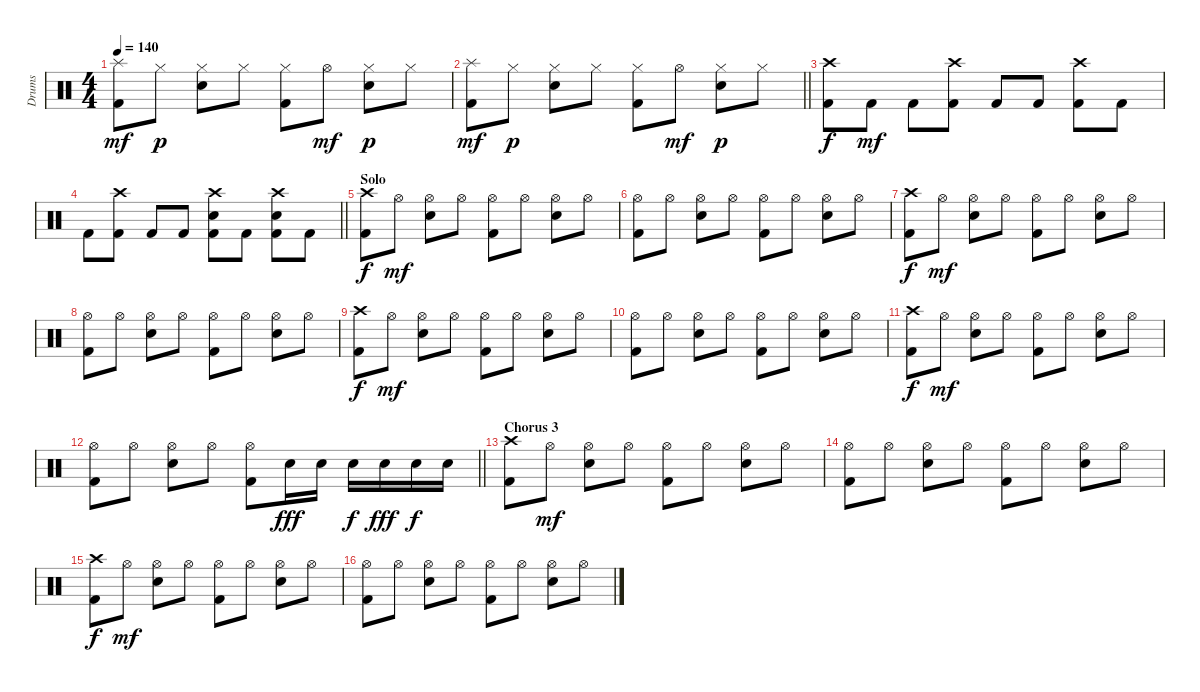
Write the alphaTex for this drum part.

\track ("Drums" "Drums") {instrument percussion}
\staff {score}
\articulation defaults
\ts (4 4)
\tempo 140
\clef neutral
\ks c
("Splash (hit)" "Kick (hit) 2").8{dy mf} "Hi-Hat (closed)".8{dy p} ("Hi-Hat (closed)" "Snare (hit) 2").8 "Hi-Hat (closed)".8 ("Hi-Hat (closed)" "Kick (hit) 2").8 "Hi-Hat (open)".8{dy mf} ("Hi-Hat (closed)" "Snare (hit) 2").8{dy p} "Hi-Hat (closed)".8 |
\barLineRight lightlight
("Splash (hit)" "Kick (hit) 2").8{dy mf} "Hi-Hat (closed)".8{dy p} ("Hi-Hat (closed)" "Snare (hit) 2").8 "Hi-Hat (closed)".8 ("Hi-Hat (closed)" "Kick (hit) 2").8 "Hi-Hat (open)".8{dy mf} ("Hi-Hat (closed)" "Snare (hit) 2").8{dy p} "Hi-Hat (closed)".8 |
("Crash high (hit)" "Kick (hit) 2").8{dy f} "Kick (hit) 2".8{dy mf} "Kick (hit) 2".8 ("Crash high (hit)" "Kick (hit) 2").8 "Kick (hit) 2".8 "Kick (hit) 2".8 ("Crash high (hit)" "Kick (hit) 2").8 "Kick (hit) 2".8 |
\barLineRight lightlight "Kick (hit) 2".8
("Crash high (hit)" "Kick (hit) 2").8 "Kick (hit) 2".8 "Kick (hit) 2".8 ("Crash high (hit)" "Snare (hit) 2" "Kick (hit) 2").8 "Kick (hit) 2".8 ("Crash high (hit)" "Snare (hit) 2" "Kick (hit) 2").8 "Kick (hit) 2".8 |
\section ("" "Solo")
("Crash high (hit)" "Kick (hit) 2").8{dy f} "Hi-Hat (open)".8{dy mf} ("Hi-Hat (open)" "Snare (hit) 2").8 "Hi-Hat (open)".8 ("Hi-Hat (open)" "Kick (hit) 2").8 "Hi-Hat (open)".8 ("Hi-Hat (open)" "Snare (hit) 2").8 "Hi-Hat (open)".8 |
("Hi-Hat (open)" "Kick (hit) 2").8 "Hi-Hat (open)".8 ("Hi-Hat (open)" "Snare (hit) 2").8 "Hi-Hat (open)".8 ("Hi-Hat (open)" "Kick (hit) 2").8 "Hi-Hat (open)".8 ("Hi-Hat (open)" "Snare (hit) 2").8 "Hi-Hat (open)".8 |
("Crash high (hit)" "Kick (hit) 2").8{dy f} "Hi-Hat (open)".8{dy mf} ("Hi-Hat (open)" "Snare (hit) 2").8 "Hi-Hat (open)".8 ("Hi-Hat (open)" "Kick (hit) 2").8 "Hi-Hat (open)".8 ("Hi-Hat (open)" "Snare (hit) 2").8 "Hi-Hat (open)".8 |
("Hi-Hat (open)" "Kick (hit) 2").8 "Hi-Hat (open)".8 ("Hi-Hat (open)" "Snare (hit) 2").8 "Hi-Hat (open)".8 ("Hi-Hat (open)" "Kick (hit) 2").8 "Hi-Hat (open)".8 ("Hi-Hat (open)" "Snare (hit) 2").8 "Hi-Hat (open)".8 |
("Crash high (hit)" "Kick (hit) 2").8{dy f} "Hi-Hat (open)".8{dy mf} ("Hi-Hat (open)" "Snare (hit) 2").8 "Hi-Hat (open)".8 ("Hi-Hat (open)" "Kick (hit) 2").8 "Hi-Hat (open)".8 ("Hi-Hat (open)" "Snare (hit) 2").8 "Hi-Hat (open)".8 |
("Hi-Hat (open)" "Kick (hit) 2").8 "Hi-Hat (open)".8 ("Hi-Hat (open)" "Snare (hit) 2").8 "Hi-Hat (open)".8 ("Hi-Hat (open)" "Kick (hit) 2").8 "Hi-Hat (open)".8 ("Hi-Hat (open)" "Snare (hit) 2").8 "Hi-Hat (open)".8 |
("Crash high (hit)" "Kick (hit) 2").8{dy f} "Hi-Hat (open)".8{dy mf} ("Hi-Hat (open)" "Snare (hit) 2").8 "Hi-Hat (open)".8 ("Hi-Hat (open)" "Kick (hit) 2").8 "Hi-Hat (open)".8 ("Hi-Hat (open)" "Snare (hit) 2").8 "Hi-Hat (open)".8 |
\barLineRight lightlight
("Hi-Hat (open)" "Kick (hit) 2").8 "Hi-Hat (open)".8 ("Hi-Hat (open)" "Snare (hit) 2").8 "Hi-Hat (open)".8 ("Hi-Hat (open)" "Kick (hit) 2").8 "Snare (hit) 2".16{dy fff} "Snare (hit) 2".16 "Snare (hit) 2".16{dy f} "Snare (hit) 2".16{dy fff} "Snare (hit) 2".16{dy f} "Snare (hit) 2".16 |
\section ("" "Chorus 3")
("Crash high (hit)" "Kick (hit) 2").8 "Hi-Hat (open)".8{dy mf} ("Hi-Hat (open)" "Snare (hit) 2").8 "Hi-Hat (open)".8 ("Hi-Hat (open)" "Kick (hit) 2").8 "Hi-Hat (open)".8 ("Hi-Hat (open)" "Snare (hit) 2").8 "Hi-Hat (open)".8 |
("Hi-Hat (open)" "Kick (hit) 2").8 "Hi-Hat (open)".8 ("Hi-Hat (open)" "Snare (hit) 2").8 "Hi-Hat (open)".8 ("Hi-Hat (open)" "Kick (hit) 2").8 "Hi-Hat (open)".8 ("Hi-Hat (open)" "Snare (hit) 2").8 "Hi-Hat (open)".8 |
("Crash high (hit)" "Kick (hit) 2").8{dy f} "Hi-Hat (open)".8{dy mf} ("Hi-Hat (open)" "Snare (hit) 2").8 "Hi-Hat (open)".8 ("Hi-Hat (open)" "Kick (hit) 2").8 "Hi-Hat (open)".8 ("Hi-Hat (open)" "Snare (hit) 2").8 "Hi-Hat (open)".8 |
("Hi-Hat (open)" "Kick (hit) 2").8 "Hi-Hat (open)".8 ("Hi-Hat (open)" "Snare (hit) 2").8 "Hi-Hat (open)".8 ("Hi-Hat (open)" "Kick (hit) 2").8 "Hi-Hat (open)".8 ("Hi-Hat (open)" "Snare (hit) 2").8 "Hi-Hat (open)".8
